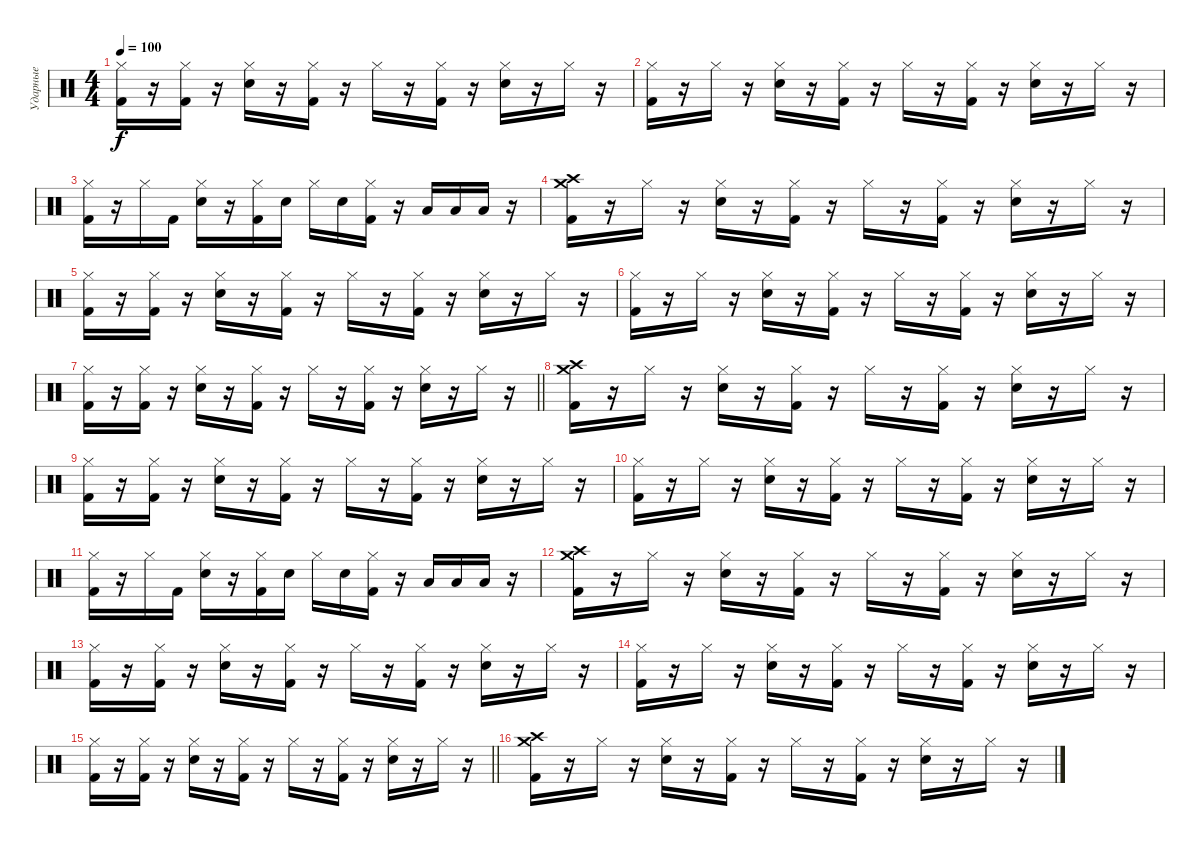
\track ("Ударные" "Ударные") {instrument percussion}
\staff {score}
\articulation defaults
\ts (4 4)
\tempo 100
\clef neutral
\ks c
("Hi-Hat (closed)" "Kick (hit) 2").16{dy f} r.16 ("Hi-Hat (closed)" "Kick (hit) 2").16 r.16 ("Hi-Hat (closed)" "Electric Snare (hit)").16 r.16 ("Hi-Hat (closed)" "Kick (hit) 2").16 r.16 "Hi-Hat (closed)".16 r.16 ("Hi-Hat (closed)" "Kick (hit) 2").16 r.16 ("Hi-Hat (closed)" "Electric Snare (hit)").16 r.16 "Hi-Hat (closed)".16 r.16 |
("Hi-Hat (closed)" "Kick (hit) 2").16 r.16 "Hi-Hat (closed)".16 r.16 ("Hi-Hat (closed)" "Electric Snare (hit)").16 r.16 ("Hi-Hat (closed)" "Kick (hit) 2").16 r.16 "Hi-Hat (closed)".16 r.16 ("Hi-Hat (closed)" "Kick (hit) 2").16 r.16 ("Hi-Hat (closed)" "Electric Snare (hit)").16 r.16 "Hi-Hat (closed)".16 r.16 |
("Hi-Hat (closed)" "Kick (hit) 2").16 r.16 "Hi-Hat (closed)".16 "Kick (hit) 2".16 ("Hi-Hat (closed)" "Electric Snare (hit)").16 r.16 ("Hi-Hat (closed)" "Kick (hit) 2").16 "Electric Snare (hit)".16 "Hi-Hat (closed)".16 "Electric Snare (hit)".16 ("Hi-Hat (closed)" "Kick (hit) 2").16 r.16 "Low Tom (hit)".16 "Low Tom (hit)".16 "Low Floor Tom (hit)".16 r.16 |
("Crash high (hit)" "Crash medium (hit)" "Kick (hit) 2").16 r.16 "Hi-Hat (closed)".16 r.16 ("Hi-Hat (closed)" "Electric Snare (hit)").16 r.16 ("Hi-Hat (closed)" "Kick (hit) 2").16 r.16 "Hi-Hat (closed)".16 r.16 ("Hi-Hat (closed)" "Kick (hit) 2").16 r.16 ("Hi-Hat (closed)" "Electric Snare (hit)").16 r.16 "Hi-Hat (closed)".16 r.16 |
("Hi-Hat (closed)" "Kick (hit) 2").16 r.16 ("Hi-Hat (closed)" "Kick (hit) 2").16 r.16 ("Hi-Hat (closed)" "Electric Snare (hit)").16 r.16 ("Hi-Hat (closed)" "Kick (hit) 2").16 r.16 "Hi-Hat (closed)".16 r.16 ("Hi-Hat (closed)" "Kick (hit) 2").16 r.16 ("Hi-Hat (closed)" "Electric Snare (hit)").16 r.16 "Hi-Hat (closed)".16 r.16 |
("Hi-Hat (closed)" "Kick (hit) 2").16 r.16 "Hi-Hat (closed)".16 r.16 ("Hi-Hat (closed)" "Electric Snare (hit)").16 r.16 ("Hi-Hat (closed)" "Kick (hit) 2").16 r.16 "Hi-Hat (closed)".16 r.16 ("Hi-Hat (closed)" "Kick (hit) 2").16 r.16 ("Hi-Hat (closed)" "Electric Snare (hit)").16 r.16 "Hi-Hat (closed)".16 r.16 |
\barLineRight lightlight
("Hi-Hat (closed)" "Kick (hit) 2").16 r.16 ("Hi-Hat (closed)" "Kick (hit) 2").16 r.16 ("Hi-Hat (closed)" "Electric Snare (hit)").16 r.16 ("Hi-Hat (closed)" "Kick (hit) 2").16 r.16 "Hi-Hat (closed)".16 r.16 ("Hi-Hat (closed)" "Kick (hit) 2").16 r.16 ("Hi-Hat (closed)" "Electric Snare (hit)").16 r.16 "Hi-Hat (closed)".16 r.16 |
("Crash high (hit)" "Crash medium (hit)" "Kick (hit) 2").16 r.16 "Hi-Hat (closed)".16 r.16 ("Hi-Hat (closed)" "Electric Snare (hit)").16 r.16 ("Hi-Hat (closed)" "Kick (hit) 2").16 r.16 "Hi-Hat (closed)".16 r.16 ("Hi-Hat (closed)" "Kick (hit) 2").16 r.16 ("Hi-Hat (closed)" "Electric Snare (hit)").16 r.16 "Hi-Hat (closed)".16 r.16 |
("Hi-Hat (closed)" "Kick (hit) 2").16 r.16 ("Hi-Hat (closed)" "Kick (hit) 2").16 r.16 ("Hi-Hat (closed)" "Electric Snare (hit)").16 r.16 ("Hi-Hat (closed)" "Kick (hit) 2").16 r.16 "Hi-Hat (closed)".16 r.16 ("Hi-Hat (closed)" "Kick (hit) 2").16 r.16 ("Hi-Hat (closed)" "Electric Snare (hit)").16 r.16 "Hi-Hat (closed)".16 r.16 |
("Hi-Hat (closed)" "Kick (hit) 2").16 r.16 "Hi-Hat (closed)".16 r.16 ("Hi-Hat (closed)" "Electric Snare (hit)").16 r.16 ("Hi-Hat (closed)" "Kick (hit) 2").16 r.16 "Hi-Hat (closed)".16 r.16 ("Hi-Hat (closed)" "Kick (hit) 2").16 r.16 ("Hi-Hat (closed)" "Electric Snare (hit)").16 r.16 "Hi-Hat (closed)".16 r.16 |
("Hi-Hat (closed)" "Kick (hit) 2").16 r.16 "Hi-Hat (closed)".16 "Kick (hit) 2".16 ("Hi-Hat (closed)" "Electric Snare (hit)").16 r.16 ("Hi-Hat (closed)" "Kick (hit) 2").16 "Electric Snare (hit)".16 "Hi-Hat (closed)".16 "Electric Snare (hit)".16 ("Hi-Hat (closed)" "Kick (hit) 2").16 r.16 "Low Tom (hit)".16 "Low Tom (hit)".16 "Low Floor Tom (hit)".16 r.16 |
("Crash high (hit)" "Crash medium (hit)" "Kick (hit) 2").16 r.16 "Hi-Hat (closed)".16 r.16 ("Hi-Hat (closed)" "Electric Snare (hit)").16 r.16 ("Hi-Hat (closed)" "Kick (hit) 2").16 r.16 "Hi-Hat (closed)".16 r.16 ("Hi-Hat (closed)" "Kick (hit) 2").16 r.16 ("Hi-Hat (closed)" "Electric Snare (hit)").16 r.16 "Hi-Hat (closed)".16 r.16 |
("Hi-Hat (closed)" "Kick (hit) 2").16 r.16 ("Hi-Hat (closed)" "Kick (hit) 2").16 r.16 ("Hi-Hat (closed)" "Electric Snare (hit)").16 r.16 ("Hi-Hat (closed)" "Kick (hit) 2").16 r.16 "Hi-Hat (closed)".16 r.16 ("Hi-Hat (closed)" "Kick (hit) 2").16 r.16 ("Hi-Hat (closed)" "Electric Snare (hit)").16 r.16 "Hi-Hat (closed)".16 r.16 |
("Hi-Hat (closed)" "Kick (hit) 2").16 r.16 "Hi-Hat (closed)".16 r.16 ("Hi-Hat (closed)" "Electric Snare (hit)").16 r.16 ("Hi-Hat (closed)" "Kick (hit) 2").16 r.16 "Hi-Hat (closed)".16 r.16 ("Hi-Hat (closed)" "Kick (hit) 2").16 r.16 ("Hi-Hat (closed)" "Electric Snare (hit)").16 r.16 "Hi-Hat (closed)".16 r.16 |
\barLineRight lightlight
("Hi-Hat (closed)" "Kick (hit) 2").16 r.16 ("Hi-Hat (closed)" "Kick (hit) 2").16 r.16 ("Hi-Hat (closed)" "Electric Snare (hit)").16 r.16 ("Hi-Hat (closed)" "Kick (hit) 2").16 r.16 "Hi-Hat (closed)".16 r.16 ("Hi-Hat (closed)" "Kick (hit) 2").16 r.16 ("Hi-Hat (closed)" "Electric Snare (hit)").16 r.16 "Hi-Hat (closed)".16 r.16 |
("Crash high (hit)" "Crash medium (hit)" "Kick (hit) 2").16 r.16 "Hi-Hat (closed)".16 r.16 ("Hi-Hat (closed)" "Electric Snare (hit)").16 r.16 ("Hi-Hat (closed)" "Kick (hit) 2").16 r.16 "Hi-Hat (closed)".16 r.16 ("Hi-Hat (closed)" "Kick (hit) 2").16 r.16 ("Hi-Hat (closed)" "Electric Snare (hit)").16 r.16 "Hi-Hat (closed)".16 r.16
